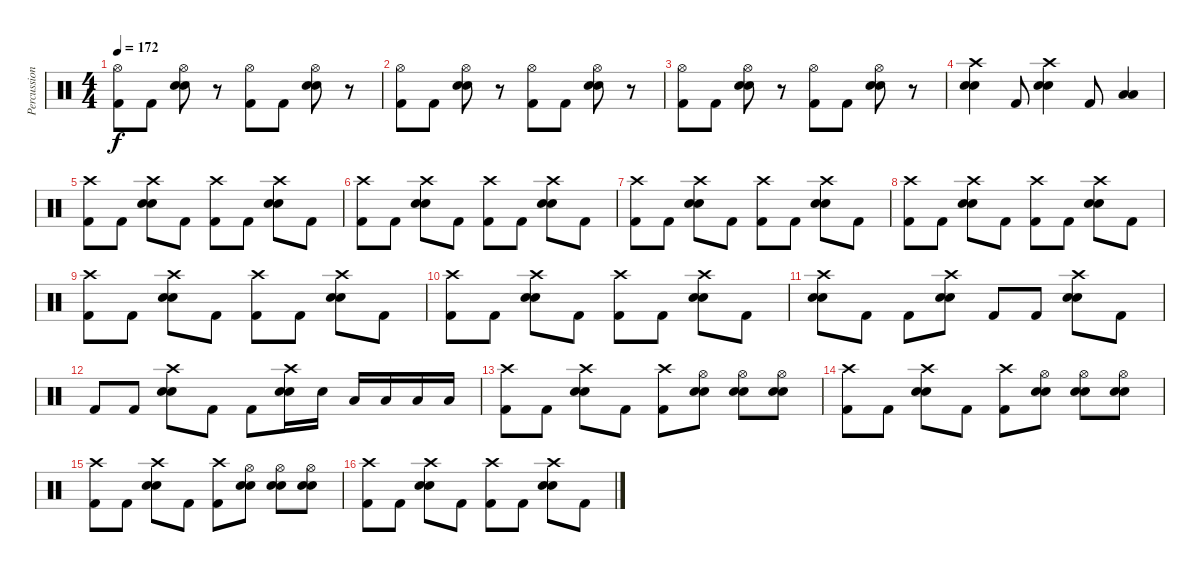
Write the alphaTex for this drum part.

\track ("Percussion" "Percussion") {instrument percussion}
\staff {score}
\articulation defaults
\ts (4 4)
\tempo 172
\clef neutral
\ks c
("Hi-Hat (open)" "Kick (hit) 2").8{dy f} "Kick (hit) 2".8 ("Hi-Hat (open)" "Snare (hit) 2" "Electric Snare (hit)").8 r.8 ("Hi-Hat (open)" "Kick (hit) 2").8 "Kick (hit) 2".8 ("Hi-Hat (open)" "Snare (hit) 2" "Electric Snare (hit)").8 r.8 |
("Hi-Hat (open)" "Kick (hit) 2").8 "Kick (hit) 2".8 ("Hi-Hat (open)" "Snare (hit) 2" "Electric Snare (hit)").8 r.8 ("Hi-Hat (open)" "Kick (hit) 2").8 "Kick (hit) 2".8 ("Hi-Hat (open)" "Snare (hit) 2" "Electric Snare (hit)").8 r.8 |
("Hi-Hat (open)" "Kick (hit) 2").8 "Kick (hit) 2".8 ("Hi-Hat (open)" "Snare (hit) 2" "Electric Snare (hit)").8 r.8 ("Hi-Hat (open)" "Kick (hit) 2").8 "Kick (hit) 2".8 ("Hi-Hat (open)" "Snare (hit) 2" "Electric Snare (hit)").8 r.8 |
("Crash high (hit)" "Snare (hit) 2" "Electric Snare (hit)").4 "Kick (hit) 2".8 ("Crash high (hit)" "Snare (hit) 2" "Electric Snare (hit)").4 "Kick (hit) 2".8 ("Low Tom (hit)" "Low Floor Tom (hit)").4 |
("Crash high (hit)" "Kick (hit) 2").8 "Kick (hit) 2".8 ("Crash high (hit)" "Snare (hit) 2" "Electric Snare (hit)").8 "Kick (hit) 2".8 ("Crash high (hit)" "Kick (hit) 2").8 "Kick (hit) 2".8 ("Crash high (hit)" "Snare (hit) 2" "Electric Snare (hit)").8 "Kick (hit) 2".8 |
("Crash high (hit)" "Kick (hit) 2").8 "Kick (hit) 2".8 ("Crash high (hit)" "Snare (hit) 2" "Electric Snare (hit)").8 "Kick (hit) 2".8 ("Crash high (hit)" "Kick (hit) 2").8 "Kick (hit) 2".8 ("Crash high (hit)" "Snare (hit) 2" "Electric Snare (hit)").8 "Kick (hit) 2".8 |
("Crash high (hit)" "Kick (hit) 2").8 "Kick (hit) 2".8 ("Crash high (hit)" "Snare (hit) 2" "Electric Snare (hit)").8 "Kick (hit) 2".8 ("Crash high (hit)" "Kick (hit) 2").8 "Kick (hit) 2".8 ("Crash high (hit)" "Snare (hit) 2" "Electric Snare (hit)").8 "Kick (hit) 2".8 |
("Crash high (hit)" "Kick (hit) 2").8 "Kick (hit) 2".8 ("Crash high (hit)" "Snare (hit) 2" "Electric Snare (hit)").8 "Kick (hit) 2".8 ("Crash high (hit)" "Kick (hit) 2").8 "Kick (hit) 2".8 ("Crash high (hit)" "Snare (hit) 2" "Electric Snare (hit)").8 "Kick (hit) 2".8 |
("Crash high (hit)" "Kick (hit) 2").8 "Kick (hit) 2".8 ("Crash high (hit)" "Snare (hit) 2" "Electric Snare (hit)").8 "Kick (hit) 2".8 ("Crash high (hit)" "Kick (hit) 2").8 "Kick (hit) 2".8 ("Crash high (hit)" "Snare (hit) 2" "Electric Snare (hit)").8 "Kick (hit) 2".8 |
("Crash high (hit)" "Kick (hit) 2").8 "Kick (hit) 2".8 ("Crash high (hit)" "Snare (hit) 2" "Electric Snare (hit)").8 "Kick (hit) 2".8 ("Crash high (hit)" "Kick (hit) 2").8 "Kick (hit) 2".8 ("Crash high (hit)" "Snare (hit) 2" "Electric Snare (hit)").8 "Kick (hit) 2".8 |
("Crash high (hit)" "Snare (hit) 2" "Electric Snare (hit)").8 "Kick (hit) 2".8 "Kick (hit) 2".8 ("Crash high (hit)" "Snare (hit) 2" "Electric Snare (hit)").8 "Kick (hit) 2".8 "Kick (hit) 2".8 ("Crash high (hit)" "Snare (hit) 2" "Electric Snare (hit)").8 "Kick (hit) 2".8 |
"Kick (hit) 2".8 "Kick (hit) 2".8 ("Crash high (hit)" "Snare (hit) 2" "Electric Snare (hit)").8 "Kick (hit) 2".8 "Kick (hit) 2".8 ("Crash high (hit)" "Snare (hit) 2" "Electric Snare (hit)").16 "Electric Snare (hit)".16 "Low Tom (hit)".16 "Low Tom (hit)".16 "Low Floor Tom (hit)".16 "Low Floor Tom (hit)".16 |
("Crash high (hit)" "Kick (hit) 2").8 "Kick (hit) 2".8 ("Crash high (hit)" "Snare (hit) 2" "Electric Snare (hit)").8 "Kick (hit) 2".8 ("Crash high (hit)" "Kick (hit) 2").8 ("Hi-Hat (open)" "Snare (hit) 2" "Electric Snare (hit)").8 ("Hi-Hat (open)" "Snare (hit) 2" "Electric Snare (hit)").8 ("Hi-Hat (open)" "Snare (hit) 2" "Electric Snare (hit)").8 |
("Crash high (hit)" "Kick (hit) 2").8 "Kick (hit) 2".8 ("Crash high (hit)" "Snare (hit) 2" "Electric Snare (hit)").8 "Kick (hit) 2".8 ("Crash high (hit)" "Kick (hit) 2").8 ("Hi-Hat (open)" "Snare (hit) 2" "Electric Snare (hit)").8 ("Hi-Hat (open)" "Snare (hit) 2" "Electric Snare (hit)").8 ("Hi-Hat (open)" "Snare (hit) 2" "Electric Snare (hit)").8 |
("Crash high (hit)" "Kick (hit) 2").8 "Kick (hit) 2".8 ("Crash high (hit)" "Snare (hit) 2" "Electric Snare (hit)").8 "Kick (hit) 2".8 ("Crash high (hit)" "Kick (hit) 2").8 ("Hi-Hat (open)" "Snare (hit) 2" "Electric Snare (hit)").8 ("Hi-Hat (open)" "Snare (hit) 2" "Electric Snare (hit)").8 ("Hi-Hat (open)" "Snare (hit) 2" "Electric Snare (hit)").8 |
("Crash high (hit)" "Kick (hit) 2").8 "Kick (hit) 2".8 ("Crash high (hit)" "Snare (hit) 2" "Electric Snare (hit)").8 "Kick (hit) 2".8 ("Crash high (hit)" "Kick (hit) 2").8 "Kick (hit) 2".8 ("Crash high (hit)" "Snare (hit) 2" "Electric Snare (hit)").8 "Kick (hit) 2".8
